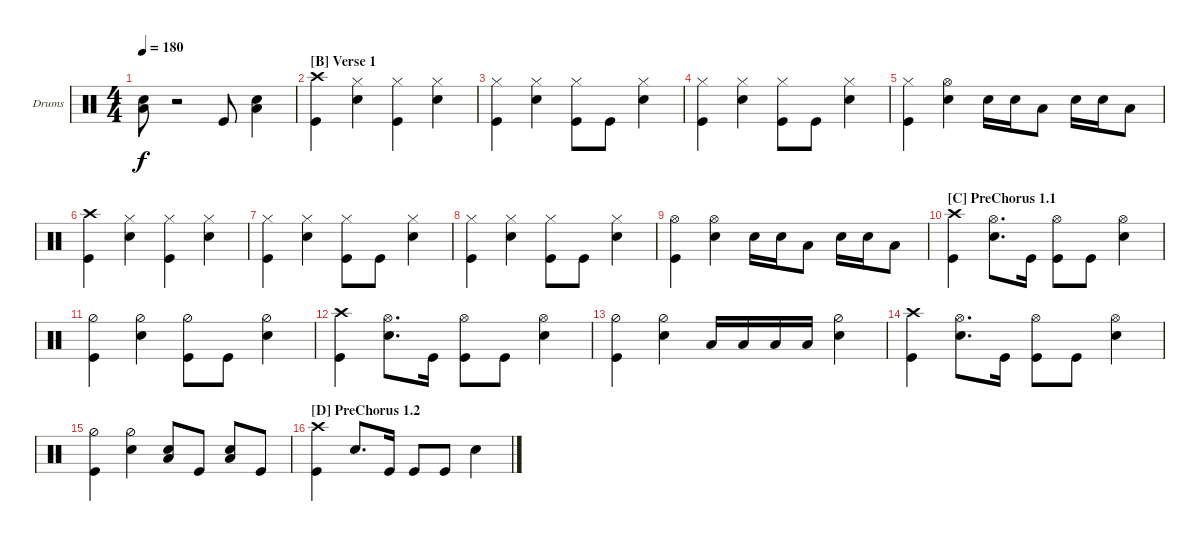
\defaultSystemsLayout 4
\bracketExtendMode groupsimilarinstruments
\firstSystemTrackNameOrientation horizontal
\otherSystemsTrackNameOrientation horizontal
\track ("Drumkit" "Drums") {instrument percussion}
\staff {score}
\articulation defaults
\ts (4 4)
\tempo 180
\clef neutral
\ks c
("Low Tom (hit)" "Snare (hit) 2").8{dy f} r.2 "Kick (hit)".8 ("Low Tom (hit)" "Snare (hit) 2").4 |
\section ("B" "Verse 1")
("Crash high (hit)" "Kick (hit)").4 ("Snare (hit) 2" "Hi-Hat (closed)").4 ("Kick (hit)" "Hi-Hat (closed)").4 ("Snare (hit) 2" "Hi-Hat (closed)").4 |
("Kick (hit)" "Hi-Hat (closed)").4 ("Snare (hit) 2" "Hi-Hat (closed)").4 ("Kick (hit)" "Hi-Hat (closed)").8 "Kick (hit)".8 ("Snare (hit) 2" "Hi-Hat (closed)").4 |
("Kick (hit)" "Hi-Hat (closed)").4 ("Snare (hit) 2" "Hi-Hat (closed)").4 ("Kick (hit)" "Hi-Hat (closed)").8 "Kick (hit)".8 ("Snare (hit) 2" "Hi-Hat (closed)").4 |
("Kick (hit)" "Hi-Hat (closed)").4 ("Snare (hit) 2" "Hi-Hat (open)").4 "Snare (hit) 2".16 "Snare (hit) 2".16 "Low Tom (hit)".8 "Snare (hit) 2".16 "Snare (hit) 2".16 "Low Tom (hit)".8 |
("Crash high (hit)" "Kick (hit)").4 ("Snare (hit) 2" "Hi-Hat (closed)").4 ("Kick (hit)" "Hi-Hat (closed)").4 ("Snare (hit) 2" "Hi-Hat (closed)").4 |
("Kick (hit)" "Hi-Hat (closed)").4 ("Snare (hit) 2" "Hi-Hat (closed)").4 ("Kick (hit)" "Hi-Hat (closed)").8 "Kick (hit)".8 ("Snare (hit) 2" "Hi-Hat (closed)").4 |
("Kick (hit)" "Hi-Hat (closed)").4 ("Snare (hit) 2" "Hi-Hat (closed)").4 ("Kick (hit)" "Hi-Hat (closed)").8 "Kick (hit)".8 ("Snare (hit) 2" "Hi-Hat (closed)").4 |
("Kick (hit)" "Hi-Hat (open)").4 ("Snare (hit) 2" "Hi-Hat (open)").4 "Snare (hit) 2".16 "Snare (hit) 2".16 "Low Tom (hit)".8 "Snare (hit) 2".16 "Snare (hit) 2".16 "Low Tom (hit)".8 |
\section ("C" "PreChorus 1.1")
("Kick (hit)" "Crash high (hit)").4 ("Snare (hit) 2" "Hi-Hat (open)").8{d} "Kick (hit)".16 ("Kick (hit)" "Hi-Hat (open)").8 "Kick (hit)".8 ("Snare (hit) 2" "Hi-Hat (open)").4 |
("Kick (hit)" "Hi-Hat (half)").4 ("Snare (hit) 2" "Hi-Hat (half)").4 ("Kick (hit)" "Hi-Hat (half)").8 "Kick (hit)".8 ("Snare (hit) 2" "Hi-Hat (half)").4 |
("Kick (hit)" "Crash high (hit)").4 ("Snare (hit) 2" "Hi-Hat (open)").8{d} "Kick (hit)".16 ("Kick (hit)" "Hi-Hat (open)").8 "Kick (hit)".8 ("Snare (hit) 2" "Hi-Hat (open)").4 |
("Kick (hit)" "Hi-Hat (half)").4 ("Snare (hit) 2" "Hi-Hat (half)").4 "Low Tom (hit)".16 "Low Tom (hit)".16 "Low Tom (hit)".16 "Low Tom (hit)".16 ("Snare (hit) 2" "Hi-Hat (half)").4 |
("Kick (hit)" "Crash high (hit)").4 ("Snare (hit) 2" "Hi-Hat (open)").8{d} "Kick (hit)".16 ("Kick (hit)" "Hi-Hat (open)").8 "Kick (hit)".8 ("Snare (hit) 2" "Hi-Hat (open)").4 |
("Kick (hit)" "Hi-Hat (half)").4 ("Snare (hit) 2" "Hi-Hat (half)").4 ("Low Tom (hit)" "Snare (hit) 2").8 "Kick (hit)".8 ("Low Tom (hit)" "Snare (hit) 2").8 "Kick (hit)".8 |
\section ("D" "PreChorus 1.2")
("Kick (hit)" "Crash high (hit)").4 "Snare (hit) 2".8{d} "Kick (hit)".16 "Kick (hit)".8 "Kick (hit)".8 "Snare (hit) 2".4
